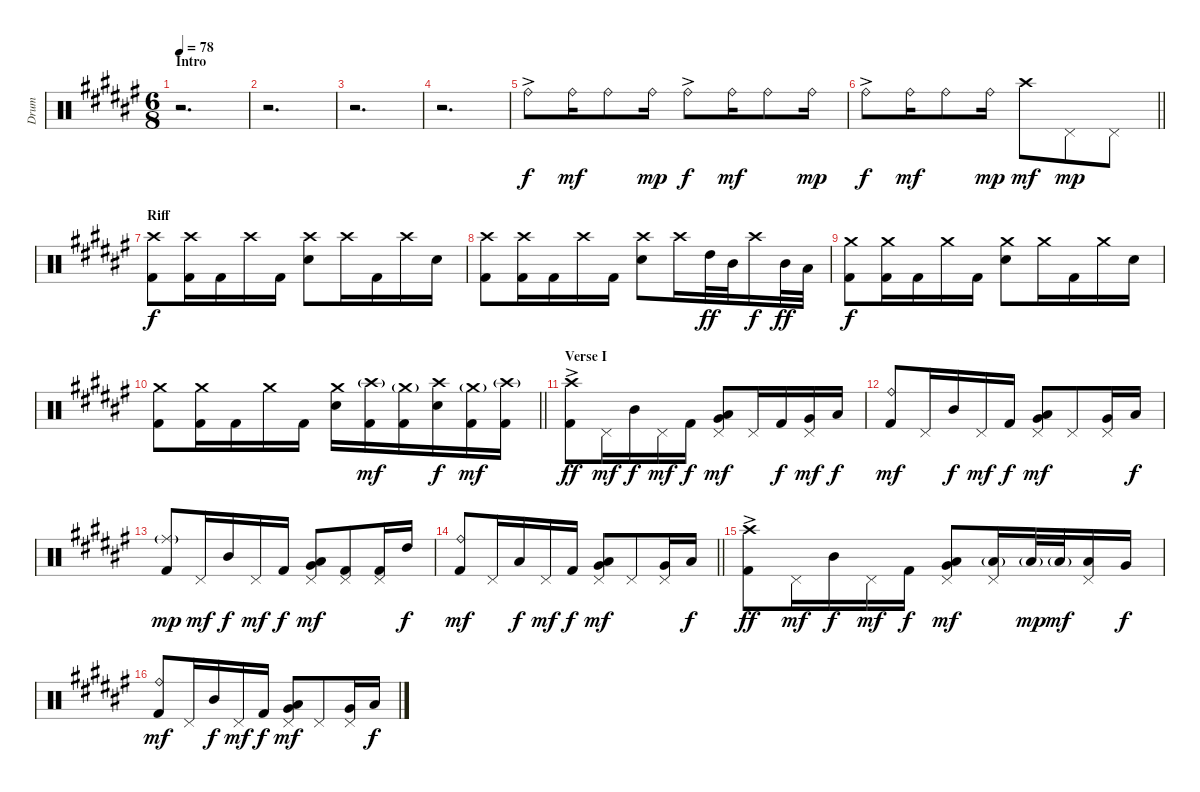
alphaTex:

\track ("Drum" "Drum") {instrument percussion}
\staff {score}
\articulation defaults
\ts (6 8)
\section ("" "Intro")
\tempo 78
\clef neutral
\ks d#minor
r.2{d dy f} |
r.2{d} |
r.2{d} |
r.2{d} |
"Ride (bell)"{ac}.8 "Ride (bell)".16{dy mf} "Ride (bell)".8 "Ride (bell)".16{dy mp} "Ride (bell)"{ac}.8{dy f} "Ride (bell)".16{dy mf} "Ride (bell)".8 "Ride (bell)".16{dy mp} |
\barLineRight lightlight "Ride (bell)"{ac}.8{dy f} "Ride (bell)".16{dy mf} "Ride (bell)".8 "Ride (bell)".16{dy mp} "Crash high (hit)".8{dy mf} "Pedal Hi-Hat (hit)".8{dy mp} "Pedal Hi-Hat (hit)".8
|
\section ("" "Riff")
("Crash high (hit)" "Kick (hit) 2").8{dy f} ("Crash high (hit)" "Kick (hit) 2").16 "Kick (hit) 2".16 "Crash high (hit)".16 "Kick (hit) 2".16 ("Crash high (hit)" "Electric Snare (hit)").8 "Crash high (hit)".16 "Kick (hit) 2".16 "Crash high (hit)".16 "Electric Snare (hit)".16 |
("Crash high (hit)" "Kick (hit) 2").8 ("Crash high (hit)" "Kick (hit) 2").16 "Kick (hit) 2".16 "Crash high (hit)".16 "Kick (hit) 2".16 ("Crash high (hit)" "Electric Snare (hit)").8 "Crash high (hit)".16 "High Tom (hit)".32{dy ff} "Mid Tom (hit)".32 "Crash high (hit)".16{dy f} "Mid Tom (hit)".32{dy ff} "Low Tom (hit)".32 |
("Crash medium (hit)" "Kick (hit) 2").8{dy f} ("Crash medium (hit)" "Kick (hit) 2").16 "Kick (hit) 2".16 "Crash medium (hit)".16 "Kick (hit) 2".16 ("Crash medium (hit)" "Electric Snare (hit)").8 "Crash medium (hit)".16 "Kick (hit) 2".16 "Crash medium (hit)".16 "Electric Snare (hit)".16 |
\barLineRight lightlight
("Crash medium (hit)" "Kick (hit) 2").8 ("Crash medium (hit)" "Kick (hit) 2").16 "Kick (hit) 2".16 "Crash medium (hit)".16 "Kick (hit) 2".16 ("Crash medium (hit)" "Electric Snare (hit)").16 ("Crash high (hit)"{g} "Kick (hit) 2").16{dy mf} ("Crash medium (hit)"{g} "Kick (hit) 2").16 ("Crash high (hit)" "Electric Snare (hit)").16{dy f} ("Crash medium (hit)"{g} "Kick (hit) 2").16{dy mf} ("Crash high (hit)"{g} "Kick (hit) 2").16 |
\section ("" "Verse I")
("Crash high (hit)"{ac} "Kick (hit) 2").8{dy ff} "Pedal Hi-Hat (hit)".16{dy mf} "Mid Tom (hit)".16{dy f} "Pedal Hi-Hat (hit)".16{dy mf} "Kick (hit) 2".16{dy f} ("Pedal Hi-Hat (hit)" "Low Tom (hit)" "Very Low Tom (hit)").8{dy mf} "Pedal Hi-Hat (hit)".16 "Kick (hit) 2".16{dy f} ("Pedal Hi-Hat (hit)" "Very Low Tom (hit)").16{dy mf} "Low Floor Tom (hit)".16{dy f} |
("Ride (bell)" "Kick (hit) 2").8{dy mf} "Pedal Hi-Hat (hit)".16 "Mid Tom (hit)".16{dy f} "Pedal Hi-Hat (hit)".16{dy mf} "Kick (hit) 2".16{dy f} ("Pedal Hi-Hat (hit)" "Low Tom (hit)" "Very Low Tom (hit)").8{dy mf} "Pedal Hi-Hat (hit)".8 ("Pedal Hi-Hat (hit)" "Very Low Tom (hit)").16 "Low Floor Tom (hit)".16{dy f} |
("Ride (middle)"{g} "Kick (hit) 2").8{dy mp} "Pedal Hi-Hat (hit)".16{dy mf} "Mid Tom (hit)".16{dy f} "Pedal Hi-Hat (hit)".16{dy mf} "Kick (hit) 2".16{dy f} ("Pedal Hi-Hat (hit)" "Low Tom (hit)" "Very Low Tom (hit)").8{dy mf} ("Pedal Hi-Hat (hit)" "Kick (hit) 2").8 ("Pedal Hi-Hat (hit)" "Kick (hit) 2").16 "High Tom (hit)".16{dy f} |
\barLineRight lightlight
("Ride (bell)" "Kick (hit) 2").8{dy mf} "Pedal Hi-Hat (hit)".16 "Low Tom (hit)".16{dy f} "Pedal Hi-Hat (hit)".16{dy mf} "Kick (hit) 2".16{dy f} ("Pedal Hi-Hat (hit)" "Low Tom (hit)" "Very Low Tom (hit)").8{dy mf} "Pedal Hi-Hat (hit)".8 ("Pedal Hi-Hat (hit)" "Very Low Tom (hit)").16 "Low Floor Tom (hit)".16{dy f} |
("Crash high (hit)"{ac} "Kick (hit) 2").8{dy ff} "Pedal Hi-Hat (hit)".16{dy mf} "Mid Tom (hit)".16{dy f} "Pedal Hi-Hat (hit)".16{dy mf} "Kick (hit) 2".16{dy f} ("Pedal Hi-Hat (hit)" "Low Tom (hit)" "Very Low Tom (hit)").8{dy mf} ("Pedal Hi-Hat (hit)" "Low Floor Tom (hit)"{g}).16 "Low Floor Tom (hit)"{g}.32{dy mp} "Low Floor Tom (hit)"{g}.32{dy mf} ("Pedal Hi-Hat (hit)" "Low Floor Tom (hit)").16 "Very Low Tom (hit)".16{dy f} |
("Ride (bell)" "Kick (hit) 2").8{dy mf} "Pedal Hi-Hat (hit)".16 "Mid Tom (hit)".16{dy f} "Pedal Hi-Hat (hit)".16{dy mf} "Kick (hit) 2".16{dy f} ("Pedal Hi-Hat (hit)" "Low Tom (hit)" "Very Low Tom (hit)").8{dy mf} "Pedal Hi-Hat (hit)".8 ("Pedal Hi-Hat (hit)" "Very Low Tom (hit)").16 "Low Floor Tom (hit)".16{dy f}
